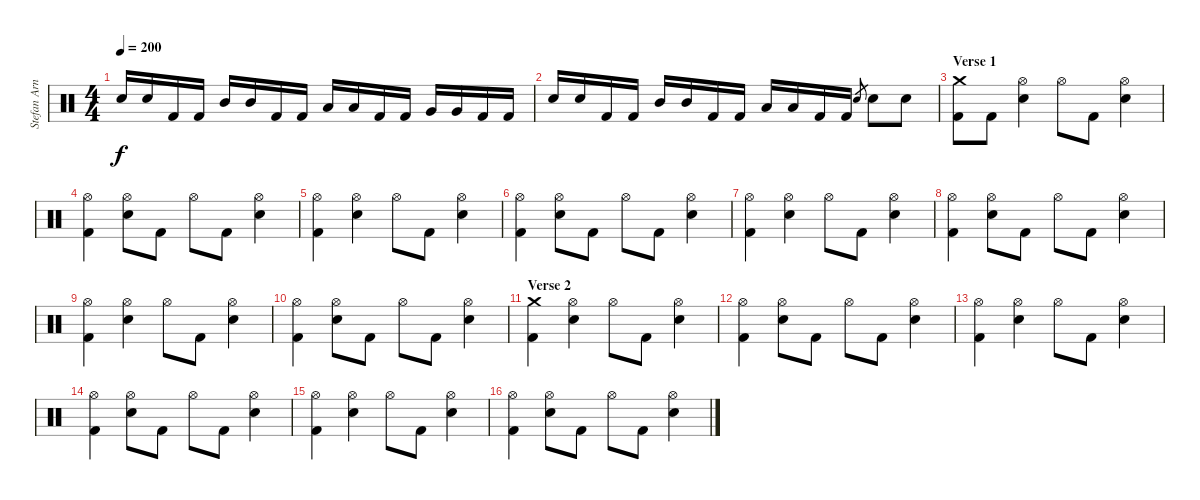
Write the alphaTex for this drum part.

\track ("Stefan Arnold" "Stefan Arn") {instrument percussion}
\staff {score}
\articulation defaults
\ts (4 4)
\tempo 200
\clef neutral
\ks c "Electric Snare (hit)".16{dy f} "Electric Snare (hit)".16 "Kick (hit) 2".16 "Kick (hit) 2".16 "Mid Tom (hit)".16 "Mid Tom (hit)".16 "Kick (hit) 2".16 "Kick (hit) 2".16 "Low Tom (hit)".16 "Low Tom (hit)".16 "Kick (hit) 2".16 "Kick (hit) 2".16 "Very Low Tom (hit)".16 "Very Low Tom (hit)".16 "Kick (hit) 2".16 "Kick (hit) 2".16
|
"Electric Snare (hit)".16 "Electric Snare (hit)".16 "Kick (hit) 2".16 "Kick (hit) 2".16 "Mid Tom (hit)".16 "Mid Tom (hit)".16 "Kick (hit) 2".16 "Kick (hit) 2".16 "Low Tom (hit)".16 "Low Tom (hit)".16 "Kick (hit) 2".16 "Kick (hit) 2".16 "Electric Snare (hit)".8{gr} "Electric Snare (hit)".8 "Electric Snare (hit)".8 |
\section ("" "Verse 1")
("Crash medium (hit)" "Kick (hit) 2").8 "Kick (hit) 2".8 ("Hi-Hat (open)" "Electric Snare (hit)").4 "Hi-Hat (open)".8 "Kick (hit) 2".8 ("Hi-Hat (open)" "Electric Snare (hit)").4 |
("Hi-Hat (open)" "Kick (hit) 2").4 ("Hi-Hat (open)" "Electric Snare (hit)").8 "Kick (hit) 2".8 "Hi-Hat (open)".8 "Kick (hit) 2".8 ("Hi-Hat (open)" "Electric Snare (hit)").4 |
("Hi-Hat (open)" "Kick (hit) 2").4 ("Hi-Hat (open)" "Electric Snare (hit)").4 "Hi-Hat (open)".8 "Kick (hit) 2".8 ("Hi-Hat (open)" "Electric Snare (hit)").4 |
("Hi-Hat (open)" "Kick (hit) 2").4 ("Hi-Hat (open)" "Electric Snare (hit)").8 "Kick (hit) 2".8 "Hi-Hat (open)".8 "Kick (hit) 2".8 ("Hi-Hat (open)" "Electric Snare (hit)").4 |
("Hi-Hat (open)" "Kick (hit) 2").4 ("Hi-Hat (open)" "Electric Snare (hit)").4 "Hi-Hat (open)".8 "Kick (hit) 2".8 ("Hi-Hat (open)" "Electric Snare (hit)").4 |
("Hi-Hat (open)" "Kick (hit) 2").4 ("Hi-Hat (open)" "Electric Snare (hit)").8 "Kick (hit) 2".8 "Hi-Hat (open)".8 "Kick (hit) 2".8 ("Hi-Hat (open)" "Electric Snare (hit)").4 |
("Hi-Hat (open)" "Kick (hit) 2").4 ("Hi-Hat (open)" "Electric Snare (hit)").4 "Hi-Hat (open)".8 "Kick (hit) 2".8 ("Hi-Hat (open)" "Electric Snare (hit)").4 |
("Hi-Hat (open)" "Kick (hit) 2").4 ("Hi-Hat (open)" "Electric Snare (hit)").8 "Kick (hit) 2".8 "Hi-Hat (open)".8 "Kick (hit) 2".8 ("Hi-Hat (open)" "Electric Snare (hit)").4 |
\section ("" "Verse 2")
("Crash medium (hit)" "Kick (hit) 2").4 ("Hi-Hat (open)" "Electric Snare (hit)").4 "Hi-Hat (open)".8 "Kick (hit) 2".8 ("Hi-Hat (open)" "Electric Snare (hit)").4 |
("Hi-Hat (open)" "Kick (hit) 2").4 ("Hi-Hat (open)" "Electric Snare (hit)").8 "Kick (hit) 2".8 "Hi-Hat (open)".8 "Kick (hit) 2".8 ("Hi-Hat (open)" "Electric Snare (hit)").4 |
("Hi-Hat (open)" "Kick (hit) 2").4 ("Hi-Hat (open)" "Electric Snare (hit)").4 "Hi-Hat (open)".8 "Kick (hit) 2".8 ("Hi-Hat (open)" "Electric Snare (hit)").4 |
("Hi-Hat (open)" "Kick (hit) 2").4 ("Hi-Hat (open)" "Electric Snare (hit)").8 "Kick (hit) 2".8 "Hi-Hat (open)".8 "Kick (hit) 2".8 ("Hi-Hat (open)" "Electric Snare (hit)").4 |
("Hi-Hat (open)" "Kick (hit) 2").4 ("Hi-Hat (open)" "Electric Snare (hit)").4 "Hi-Hat (open)".8 "Kick (hit) 2".8 ("Hi-Hat (open)" "Electric Snare (hit)").4 |
("Hi-Hat (open)" "Kick (hit) 2").4 ("Hi-Hat (open)" "Electric Snare (hit)").8 "Kick (hit) 2".8 "Hi-Hat (open)".8 "Kick (hit) 2".8 ("Hi-Hat (open)" "Electric Snare (hit)").4
